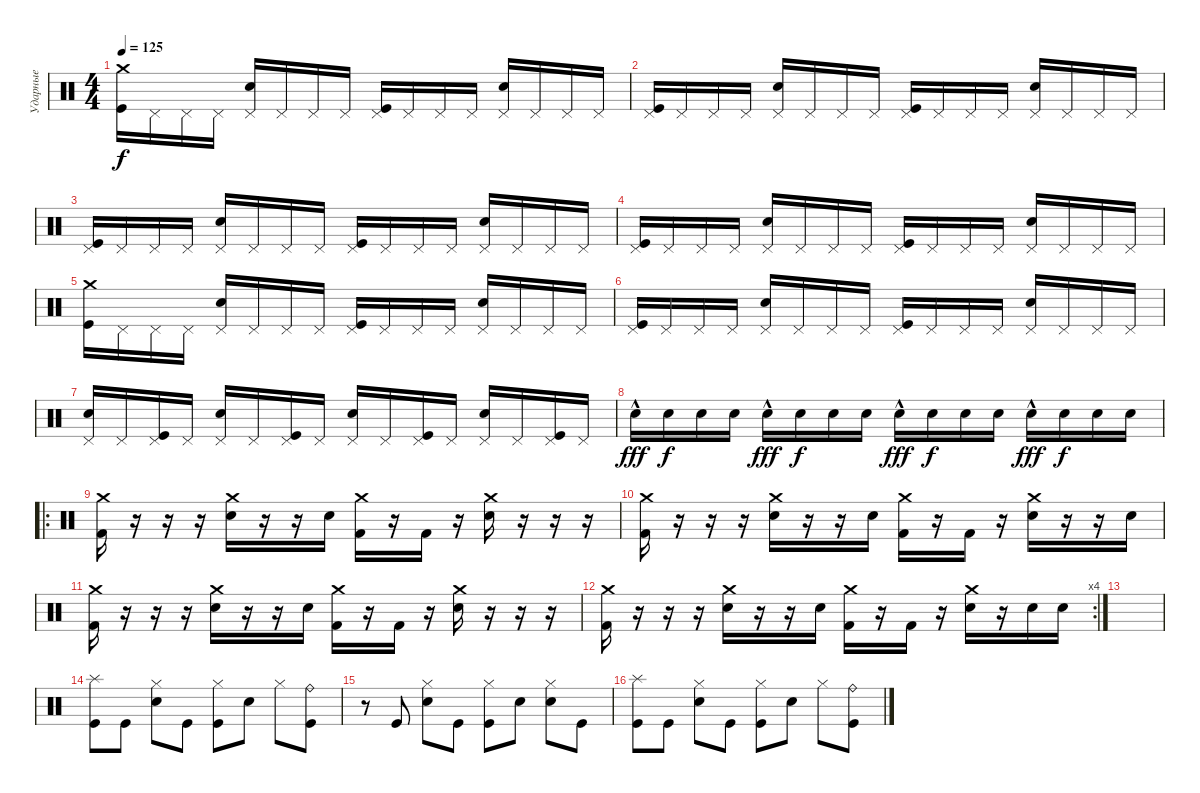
\track ("Ударные" "Ударные") {instrument percussion}
\staff {score}
\articulation defaults
\ts (4 4)
\tempo 125
\clef neutral
\ks c
("Crash medium (hit)" "Kick (hit)").16{dy f} "Pedal Hi-Hat (hit)".16 "Pedal Hi-Hat (hit)".16 "Pedal Hi-Hat (hit)".16 ("Pedal Hi-Hat (hit)" "Snare (hit) 2").16 "Pedal Hi-Hat (hit)".16 "Pedal Hi-Hat (hit)".16 "Pedal Hi-Hat (hit)".16 ("Pedal Hi-Hat (hit)" "Kick (hit)").16 "Pedal Hi-Hat (hit)".16 "Pedal Hi-Hat (hit)".16 "Pedal Hi-Hat (hit)".16 ("Pedal Hi-Hat (hit)" "Snare (hit) 2").16 "Pedal Hi-Hat (hit)".16 "Pedal Hi-Hat (hit)".16 "Pedal Hi-Hat (hit)".16 |
("Pedal Hi-Hat (hit)" "Kick (hit)").16 "Pedal Hi-Hat (hit)".16 "Pedal Hi-Hat (hit)".16 "Pedal Hi-Hat (hit)".16 ("Pedal Hi-Hat (hit)" "Snare (hit) 2").16 "Pedal Hi-Hat (hit)".16 "Pedal Hi-Hat (hit)".16 "Pedal Hi-Hat (hit)".16 ("Pedal Hi-Hat (hit)" "Kick (hit)").16 "Pedal Hi-Hat (hit)".16 "Pedal Hi-Hat (hit)".16 "Pedal Hi-Hat (hit)".16 ("Pedal Hi-Hat (hit)" "Snare (hit) 2").16 "Pedal Hi-Hat (hit)".16 "Pedal Hi-Hat (hit)".16 "Pedal Hi-Hat (hit)".16 |
("Pedal Hi-Hat (hit)" "Kick (hit)").16 "Pedal Hi-Hat (hit)".16 "Pedal Hi-Hat (hit)".16 "Pedal Hi-Hat (hit)".16 ("Pedal Hi-Hat (hit)" "Snare (hit) 2").16 "Pedal Hi-Hat (hit)".16 "Pedal Hi-Hat (hit)".16 "Pedal Hi-Hat (hit)".16 ("Pedal Hi-Hat (hit)" "Kick (hit)").16 "Pedal Hi-Hat (hit)".16 "Pedal Hi-Hat (hit)".16 "Pedal Hi-Hat (hit)".16 ("Pedal Hi-Hat (hit)" "Snare (hit) 2").16 "Pedal Hi-Hat (hit)".16 "Pedal Hi-Hat (hit)".16 "Pedal Hi-Hat (hit)".16 |
("Pedal Hi-Hat (hit)" "Kick (hit)").16 "Pedal Hi-Hat (hit)".16 "Pedal Hi-Hat (hit)".16 "Pedal Hi-Hat (hit)".16 ("Pedal Hi-Hat (hit)" "Snare (hit) 2").16 "Pedal Hi-Hat (hit)".16 "Pedal Hi-Hat (hit)".16 "Pedal Hi-Hat (hit)".16 ("Pedal Hi-Hat (hit)" "Kick (hit)").16 "Pedal Hi-Hat (hit)".16 "Pedal Hi-Hat (hit)".16 "Pedal Hi-Hat (hit)".16 ("Pedal Hi-Hat (hit)" "Snare (hit) 2").16 "Pedal Hi-Hat (hit)".16 "Pedal Hi-Hat (hit)".16 "Pedal Hi-Hat (hit)".16 |
("Crash medium (hit)" "Kick (hit)").16 "Pedal Hi-Hat (hit)".16 "Pedal Hi-Hat (hit)".16 "Pedal Hi-Hat (hit)".16 ("Pedal Hi-Hat (hit)" "Snare (hit) 2").16 "Pedal Hi-Hat (hit)".16 "Pedal Hi-Hat (hit)".16 "Pedal Hi-Hat (hit)".16 ("Pedal Hi-Hat (hit)" "Kick (hit)").16 "Pedal Hi-Hat (hit)".16 "Pedal Hi-Hat (hit)".16 "Pedal Hi-Hat (hit)".16 ("Pedal Hi-Hat (hit)" "Snare (hit) 2").16 "Pedal Hi-Hat (hit)".16 "Pedal Hi-Hat (hit)".16 "Pedal Hi-Hat (hit)".16 |
("Pedal Hi-Hat (hit)" "Kick (hit)").16 "Pedal Hi-Hat (hit)".16 "Pedal Hi-Hat (hit)".16 "Pedal Hi-Hat (hit)".16 ("Pedal Hi-Hat (hit)" "Snare (hit) 2").16 "Pedal Hi-Hat (hit)".16 "Pedal Hi-Hat (hit)".16 "Pedal Hi-Hat (hit)".16 ("Pedal Hi-Hat (hit)" "Kick (hit)").16 "Pedal Hi-Hat (hit)".16 "Pedal Hi-Hat (hit)".16 "Pedal Hi-Hat (hit)".16 ("Pedal Hi-Hat (hit)" "Snare (hit) 2").16 "Pedal Hi-Hat (hit)".16 "Pedal Hi-Hat (hit)".16 "Pedal Hi-Hat (hit)".16 |
("Pedal Hi-Hat (hit)" "Snare (hit) 2").16 "Pedal Hi-Hat (hit)".16 ("Pedal Hi-Hat (hit)" "Kick (hit)").16 "Pedal Hi-Hat (hit)".16 ("Pedal Hi-Hat (hit)" "Snare (hit) 2").16 "Pedal Hi-Hat (hit)".16 ("Pedal Hi-Hat (hit)" "Kick (hit)").16 "Pedal Hi-Hat (hit)".16 ("Pedal Hi-Hat (hit)" "Snare (hit) 2").16 "Pedal Hi-Hat (hit)".16 ("Pedal Hi-Hat (hit)" "Kick (hit)").16 "Pedal Hi-Hat (hit)".16 ("Pedal Hi-Hat (hit)" "Snare (hit) 2").16 "Pedal Hi-Hat (hit)".16 ("Pedal Hi-Hat (hit)" "Kick (hit)").16 "Pedal Hi-Hat (hit)".16 |
"Snare (hit) 2"{hac}.16{dy fff} "Snare (hit) 2".16{dy f} "Snare (hit) 2".16 "Snare (hit) 2".16 "Snare (hit) 2"{hac}.16{dy fff} "Snare (hit) 2".16{dy f} "Snare (hit) 2".16 "Snare (hit) 2".16 "Snare (hit) 2"{hac}.16{dy fff} "Snare (hit) 2".16{dy f} "Snare (hit) 2".16 "Snare (hit) 2".16 "Snare (hit) 2"{hac}.16{dy fff} "Snare (hit) 2".16{dy f} "Snare (hit) 2".16 "Snare (hit) 2".16 |
\ro
("Crash medium (hit)" "Kick (hit) 2").16 r.16 r.16 r.16 ("Crash medium (hit)" "Snare (hit) 2").16 r.16 r.16 "Snare (hit) 2".16 ("Crash medium (hit)" "Kick (hit) 2").16 r.16 "Kick (hit) 2".16 r.16 ("Crash medium (hit)" "Snare (hit) 2").16 r.16 r.16 r.16 |
("Crash medium (hit)" "Kick (hit) 2").16 r.16 r.16 r.16 ("Crash medium (hit)" "Snare (hit) 2").16 r.16 r.16 "Snare (hit) 2".16 ("Crash medium (hit)" "Kick (hit) 2").16 r.16 "Kick (hit) 2".16 r.16 ("Crash medium (hit)" "Snare (hit) 2").16 r.16 r.16 "Snare (hit) 2".16 |
("Crash medium (hit)" "Kick (hit) 2").16 r.16 r.16 r.16 ("Crash medium (hit)" "Snare (hit) 2").16 r.16 r.16 "Snare (hit) 2".16 ("Crash medium (hit)" "Kick (hit) 2").16 r.16 "Kick (hit) 2".16 r.16 ("Crash medium (hit)" "Snare (hit) 2").16 r.16 r.16 r.16 |
\rc 4
("Crash medium (hit)" "Kick (hit) 2").16 r.16 r.16 r.16 ("Crash medium (hit)" "Snare (hit) 2").16 r.16 r.16 "Snare (hit) 2".16 ("Crash medium (hit)" "Kick (hit) 2").16 r.16 "Kick (hit) 2".16 r.16 ("Crash medium (hit)" "Snare (hit) 2").16 r.16 "Snare (hit) 2".16 "Snare (hit) 2".16 |
|
("Splash (hit)" "Kick (hit)").8 "Kick (hit)".8 ("Hi-Hat (closed)" "Snare (hit) 2").8 "Kick (hit)".8 ("Hi-Hat (closed)" "Kick (hit)").8 "Snare (hit) 2".8 "Hi-Hat (closed)".8 ("Ride (bell)" "Kick (hit)").8 |
r.8 "Kick (hit)".8 ("Hi-Hat (closed)" "Snare (hit) 2").8 "Kick (hit)".8 ("Hi-Hat (closed)" "Kick (hit)").8 "Snare (hit) 2".8 ("Hi-Hat (closed)" "Snare (hit) 2").8 "Kick (hit)".8 |
("Splash (hit)" "Kick (hit)").8 "Kick (hit)".8 ("Hi-Hat (closed)" "Snare (hit) 2").8 "Kick (hit)".8 ("Hi-Hat (closed)" "Kick (hit)").8 "Snare (hit) 2".8 "Hi-Hat (closed)".8 ("Ride (bell)" "Kick (hit)").8
